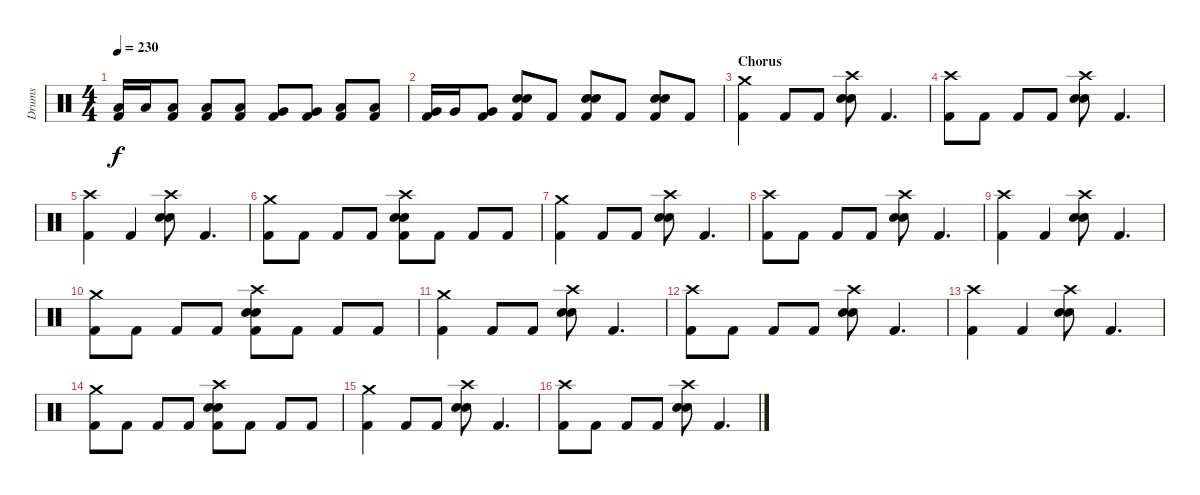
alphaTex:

\track ("Drums" "Drums") {instrument percussion}
\staff {score}
\articulation defaults
\ts (4 4)
\tempo 230
\clef neutral
\ks c
("Low Tom (hit)" "Kick (hit) 2").16{dy f} "Low Tom (hit)".16 ("Low Tom (hit)" "Kick (hit) 2").8 ("Low Tom (hit)" "Kick (hit) 2").8 ("Low Tom (hit)" "Kick (hit) 2").8 ("Very Low Tom (hit)" "Kick (hit) 2").8 ("Very Low Tom (hit)" "Kick (hit) 2").8 ("Low Floor Tom (hit)" "Kick (hit) 2").8 ("Low Floor Tom (hit)" "Kick (hit) 2").8 |
("Very Low Tom (hit)" "Kick (hit) 2").16 "Very Low Tom (hit)".16 ("Very Low Tom (hit)" "Kick (hit) 2").8 ("Electric Snare (hit)" "Electric Snare (hit)" "Kick (hit) 2").8 "Kick (hit) 2".8 ("Electric Snare (hit)" "Electric Snare (hit)" "Kick (hit) 2").8 "Kick (hit) 2".8 ("Electric Snare (hit)" "Electric Snare (hit)" "Kick (hit) 2").8 "Kick (hit) 2".8 |
\section ("" "Chorus")
("Crash medium (hit)" "Kick (hit) 2").4 "Kick (hit) 2".8 "Kick (hit) 2".8 ("Crash high (hit)" "Electric Snare (hit)" "Electric Snare (hit)").8 "Kick (hit) 2".4{d} |
("Crash high (hit)" "Kick (hit) 2").8 "Kick (hit) 2".8 "Kick (hit) 2".8 "Kick (hit) 2".8 ("Crash high (hit)" "Electric Snare (hit)" "Electric Snare (hit)").8 "Kick (hit) 2".4{d} |
("Crash high (hit)" "Kick (hit) 2").4 "Kick (hit) 2".4 ("Crash high (hit)" "Electric Snare (hit)" "Electric Snare (hit)").8 "Kick (hit) 2".4{d} |
("Crash medium (hit)" "Kick (hit) 2").8 "Kick (hit) 2".8 "Kick (hit) 2".8 "Kick (hit) 2".8 ("Crash high (hit)" "Electric Snare (hit)" "Electric Snare (hit)" "Kick (hit) 2").8 "Kick (hit) 2".8 "Kick (hit) 2".8 "Kick (hit) 2".8 |
("Crash medium (hit)" "Kick (hit) 2").4 "Kick (hit) 2".8 "Kick (hit) 2".8 ("Crash high (hit)" "Electric Snare (hit)" "Electric Snare (hit)").8 "Kick (hit) 2".4{d} |
("Crash high (hit)" "Kick (hit) 2").8 "Kick (hit) 2".8 "Kick (hit) 2".8 "Kick (hit) 2".8 ("Crash high (hit)" "Electric Snare (hit)" "Electric Snare (hit)").8 "Kick (hit) 2".4{d} |
("Crash high (hit)" "Kick (hit) 2").4 "Kick (hit) 2".4 ("Crash high (hit)" "Electric Snare (hit)" "Electric Snare (hit)").8 "Kick (hit) 2".4{d} |
("Crash medium (hit)" "Kick (hit) 2").8 "Kick (hit) 2".8 "Kick (hit) 2".8 "Kick (hit) 2".8 ("Crash high (hit)" "Electric Snare (hit)" "Electric Snare (hit)" "Kick (hit) 2").8 "Kick (hit) 2".8 "Kick (hit) 2".8 "Kick (hit) 2".8 |
("Crash medium (hit)" "Kick (hit) 2").4 "Kick (hit) 2".8 "Kick (hit) 2".8 ("Crash high (hit)" "Electric Snare (hit)" "Electric Snare (hit)").8 "Kick (hit) 2".4{d} |
("Crash high (hit)" "Kick (hit) 2").8 "Kick (hit) 2".8 "Kick (hit) 2".8 "Kick (hit) 2".8 ("Crash high (hit)" "Electric Snare (hit)" "Electric Snare (hit)").8 "Kick (hit) 2".4{d} |
("Crash high (hit)" "Kick (hit) 2").4 "Kick (hit) 2".4 ("Crash high (hit)" "Electric Snare (hit)" "Electric Snare (hit)").8 "Kick (hit) 2".4{d} |
("Crash medium (hit)" "Kick (hit) 2").8 "Kick (hit) 2".8 "Kick (hit) 2".8 "Kick (hit) 2".8 ("Crash high (hit)" "Electric Snare (hit)" "Electric Snare (hit)" "Kick (hit) 2").8 "Kick (hit) 2".8 "Kick (hit) 2".8 "Kick (hit) 2".8 |
("Crash medium (hit)" "Kick (hit) 2").4 "Kick (hit) 2".8 "Kick (hit) 2".8 ("Crash high (hit)" "Electric Snare (hit)" "Electric Snare (hit)").8 "Kick (hit) 2".4{d} |
("Crash high (hit)" "Kick (hit) 2").8 "Kick (hit) 2".8 "Kick (hit) 2".8 "Kick (hit) 2".8 ("Crash high (hit)" "Electric Snare (hit)" "Electric Snare (hit)").8 "Kick (hit) 2".4{d}
